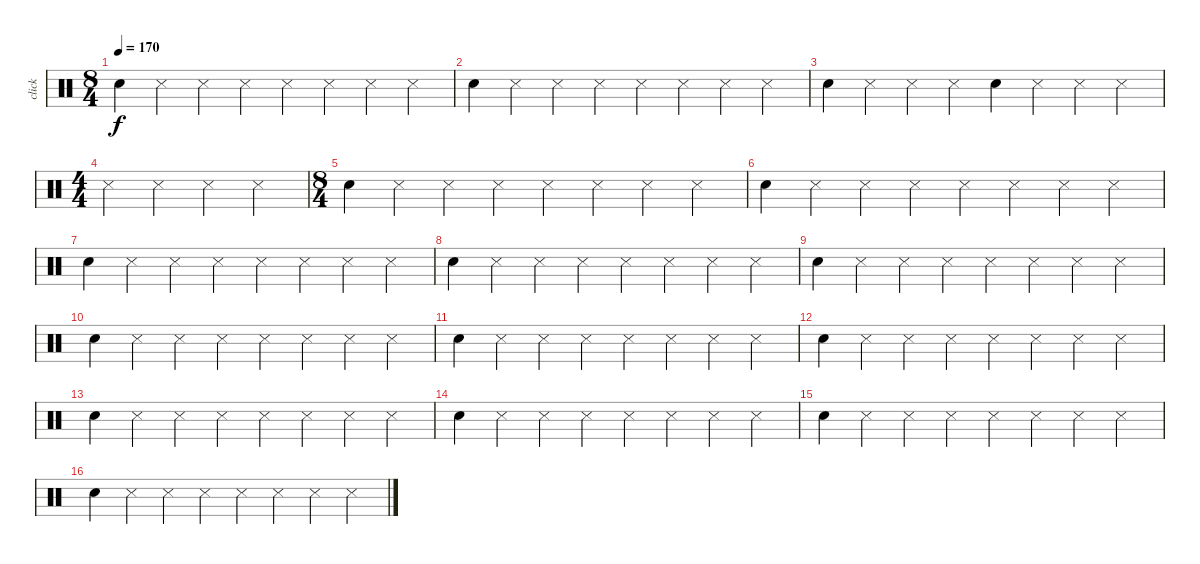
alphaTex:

\track ("click" "click") {mute instrument percussion}
\staff {score}
\articulation defaults
\ts (8 4)
\tempo 170
\clef neutral
\ks c "Metronome (bell)".4{dy f} "Metronome (hit)".4 "Metronome (hit)".4 "Metronome (hit)".4 "Metronome (hit)".4 "Metronome (hit)".4 "Metronome (hit)".4 "Metronome (hit)".4
|
"Metronome (bell)".4 "Metronome (hit)".4 "Metronome (hit)".4 "Metronome (hit)".4 "Metronome (hit)".4 "Metronome (hit)".4 "Metronome (hit)".4 "Metronome (hit)".4 |
"Metronome (bell)".4 "Metronome (hit)".4 "Metronome (hit)".4 "Metronome (hit)".4 "Metronome (bell)".4 "Metronome (hit)".4 "Metronome (hit)".4 "Metronome (hit)".4 |
\ts (4 4)
"Metronome (hit)".4 "Metronome (hit)".4 "Metronome (hit)".4 "Metronome (hit)".4 |
\ts (8 4)
"Metronome (bell)".4 "Metronome (hit)".4 "Metronome (hit)".4 "Metronome (hit)".4 "Metronome (hit)".4 "Metronome (hit)".4 "Metronome (hit)".4 "Metronome (hit)".4 |
"Metronome (bell)".4 "Metronome (hit)".4 "Metronome (hit)".4 "Metronome (hit)".4 "Metronome (hit)".4 "Metronome (hit)".4 "Metronome (hit)".4 "Metronome (hit)".4 |
"Metronome (bell)".4 "Metronome (hit)".4 "Metronome (hit)".4 "Metronome (hit)".4 "Metronome (hit)".4 "Metronome (hit)".4 "Metronome (hit)".4 "Metronome (hit)".4 |
"Metronome (bell)".4 "Metronome (hit)".4 "Metronome (hit)".4 "Metronome (hit)".4 "Metronome (hit)".4 "Metronome (hit)".4 "Metronome (hit)".4 "Metronome (hit)".4 |
"Metronome (bell)".4 "Metronome (hit)".4 "Metronome (hit)".4 "Metronome (hit)".4 "Metronome (hit)".4 "Metronome (hit)".4 "Metronome (hit)".4 "Metronome (hit)".4 |
"Metronome (bell)".4 "Metronome (hit)".4 "Metronome (hit)".4 "Metronome (hit)".4 "Metronome (hit)".4 "Metronome (hit)".4 "Metronome (hit)".4 "Metronome (hit)".4 |
"Metronome (bell)".4 "Metronome (hit)".4 "Metronome (hit)".4 "Metronome (hit)".4 "Metronome (hit)".4 "Metronome (hit)".4 "Metronome (hit)".4 "Metronome (hit)".4 |
"Metronome (bell)".4 "Metronome (hit)".4 "Metronome (hit)".4 "Metronome (hit)".4 "Metronome (hit)".4 "Metronome (hit)".4 "Metronome (hit)".4 "Metronome (hit)".4 |
"Metronome (bell)".4 "Metronome (hit)".4 "Metronome (hit)".4 "Metronome (hit)".4 "Metronome (hit)".4 "Metronome (hit)".4 "Metronome (hit)".4 "Metronome (hit)".4 |
"Metronome (bell)".4 "Metronome (hit)".4 "Metronome (hit)".4 "Metronome (hit)".4 "Metronome (hit)".4 "Metronome (hit)".4 "Metronome (hit)".4 "Metronome (hit)".4 |
"Metronome (bell)".4 "Metronome (hit)".4 "Metronome (hit)".4 "Metronome (hit)".4 "Metronome (hit)".4 "Metronome (hit)".4 "Metronome (hit)".4 "Metronome (hit)".4 |
"Metronome (bell)".4 "Metronome (hit)".4 "Metronome (hit)".4 "Metronome (hit)".4 "Metronome (hit)".4 "Metronome (hit)".4 "Metronome (hit)".4 "Metronome (hit)".4
